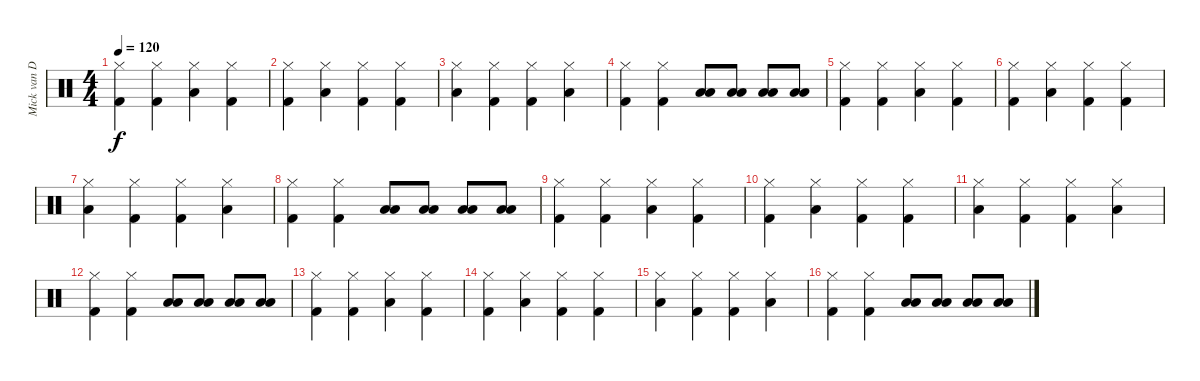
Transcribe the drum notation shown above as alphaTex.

\track ("Mick van Doorn" "Mick van D") {instrument percussion}
\staff {score}
\articulation defaults
\ts (4 4)
\tempo 120
\clef neutral
\ks c
("Kick (hit) 2" "Hi-Hat (closed)").4{dy f} ("Kick (hit) 2" "Hi-Hat (closed)").4 ("Low Floor Tom (hit)" "Hi-Hat (closed)").4 ("Kick (hit) 2" "Hi-Hat (closed)").4 |
("Kick (hit) 2" "Hi-Hat (closed)").4 ("Low Floor Tom (hit)" "Hi-Hat (closed)").4 ("Kick (hit) 2" "Hi-Hat (closed)").4 ("Kick (hit) 2" "Hi-Hat (closed)").4 |
("Low Floor Tom (hit)" "Hi-Hat (closed)").4 ("Kick (hit) 2" "Hi-Hat (closed)").4 ("Kick (hit) 2" "Hi-Hat (closed)").4 ("Low Floor Tom (hit)" "Hi-Hat (closed)").4 |
("Kick (hit) 2" "Hi-Hat (closed)").4 ("Kick (hit) 2" "Hi-Hat (closed)").4 ("Low Floor Tom (hit)" "Low Floor Tom (hit)").8 ("Low Floor Tom (hit)" "Low Floor Tom (hit)").8 ("Low Floor Tom (hit)" "Low Floor Tom (hit)").8 ("Low Floor Tom (hit)" "Low Floor Tom (hit)").8 |
("Kick (hit) 2" "Hi-Hat (closed)").4 ("Kick (hit) 2" "Hi-Hat (closed)").4 ("Low Floor Tom (hit)" "Hi-Hat (closed)").4 ("Kick (hit) 2" "Hi-Hat (closed)").4 |
("Kick (hit) 2" "Hi-Hat (closed)").4 ("Low Floor Tom (hit)" "Hi-Hat (closed)").4 ("Kick (hit) 2" "Hi-Hat (closed)").4 ("Kick (hit) 2" "Hi-Hat (closed)").4 |
("Low Floor Tom (hit)" "Hi-Hat (closed)").4 ("Kick (hit) 2" "Hi-Hat (closed)").4 ("Kick (hit) 2" "Hi-Hat (closed)").4 ("Low Floor Tom (hit)" "Hi-Hat (closed)").4 |
("Kick (hit) 2" "Hi-Hat (closed)").4 ("Kick (hit) 2" "Hi-Hat (closed)").4 ("Low Floor Tom (hit)" "Low Floor Tom (hit)").8 ("Low Floor Tom (hit)" "Low Floor Tom (hit)").8 ("Low Floor Tom (hit)" "Low Floor Tom (hit)").8 ("Low Floor Tom (hit)" "Low Floor Tom (hit)").8 |
("Kick (hit) 2" "Hi-Hat (closed)").4 ("Kick (hit) 2" "Hi-Hat (closed)").4 ("Low Floor Tom (hit)" "Hi-Hat (closed)").4 ("Kick (hit) 2" "Hi-Hat (closed)").4 |
("Kick (hit) 2" "Hi-Hat (closed)").4 ("Low Floor Tom (hit)" "Hi-Hat (closed)").4 ("Kick (hit) 2" "Hi-Hat (closed)").4 ("Kick (hit) 2" "Hi-Hat (closed)").4 |
("Low Floor Tom (hit)" "Hi-Hat (closed)").4 ("Kick (hit) 2" "Hi-Hat (closed)").4 ("Kick (hit) 2" "Hi-Hat (closed)").4 ("Low Floor Tom (hit)" "Hi-Hat (closed)").4 |
("Kick (hit) 2" "Hi-Hat (closed)").4 ("Kick (hit) 2" "Hi-Hat (closed)").4 ("Low Floor Tom (hit)" "Low Floor Tom (hit)").8 ("Low Floor Tom (hit)" "Low Floor Tom (hit)").8 ("Low Floor Tom (hit)" "Low Floor Tom (hit)").8 ("Low Floor Tom (hit)" "Low Floor Tom (hit)").8 |
("Kick (hit) 2" "Hi-Hat (closed)").4 ("Kick (hit) 2" "Hi-Hat (closed)").4 ("Low Floor Tom (hit)" "Hi-Hat (closed)").4 ("Kick (hit) 2" "Hi-Hat (closed)").4 |
("Kick (hit) 2" "Hi-Hat (closed)").4 ("Low Floor Tom (hit)" "Hi-Hat (closed)").4 ("Kick (hit) 2" "Hi-Hat (closed)").4 ("Kick (hit) 2" "Hi-Hat (closed)").4 |
("Low Floor Tom (hit)" "Hi-Hat (closed)").4 ("Kick (hit) 2" "Hi-Hat (closed)").4 ("Kick (hit) 2" "Hi-Hat (closed)").4 ("Low Floor Tom (hit)" "Hi-Hat (closed)").4 |
("Kick (hit) 2" "Hi-Hat (closed)").4 ("Kick (hit) 2" "Hi-Hat (closed)").4 ("Low Floor Tom (hit)" "Low Floor Tom (hit)").8 ("Low Floor Tom (hit)" "Low Floor Tom (hit)").8 ("Low Floor Tom (hit)" "Low Floor Tom (hit)").8 ("Low Floor Tom (hit)" "Low Floor Tom (hit)").8
